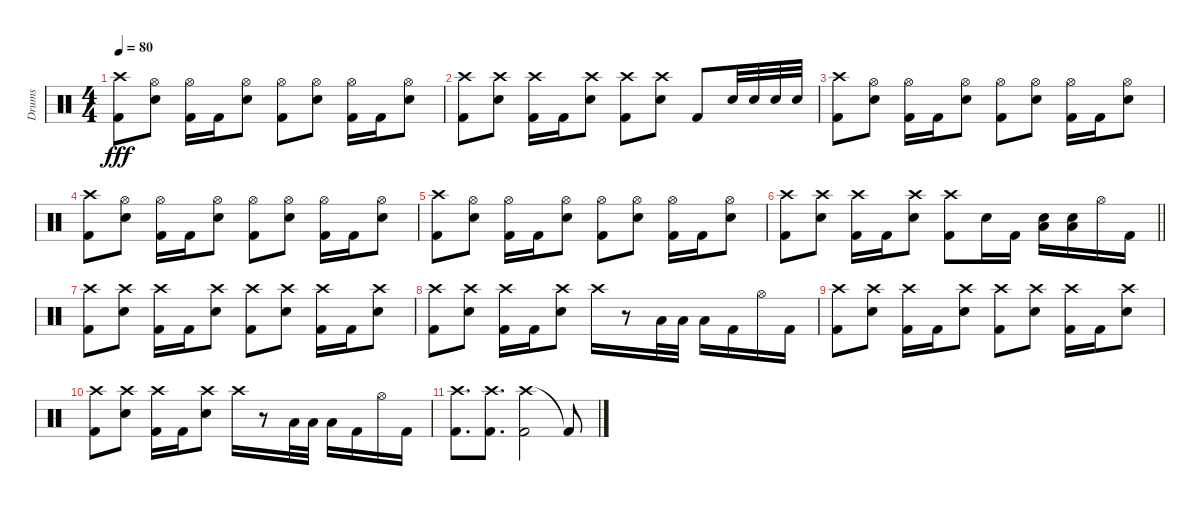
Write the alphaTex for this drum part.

\track ("Drums" "Drums") {instrument percussion}
\staff {score}
\articulation defaults
\ts (4 4)
\tempo 80
\clef neutral
\ks c
("Crash high (hit)" "Kick (hit) 2").8{dy fff} ("Hi-Hat (open)" "Snare (hit) 2").8 ("Hi-Hat (open)" "Kick (hit) 2").16 "Kick (hit) 2".16 ("Hi-Hat (open)" "Snare (hit) 2").8 ("Hi-Hat (open)" "Kick (hit) 2").8 ("Hi-Hat (open)" "Snare (hit) 2").8 ("Hi-Hat (open)" "Kick (hit) 2").16 "Kick (hit) 2".16 ("Hi-Hat (open)" "Snare (hit) 2").8 |
("Crash high (hit)" "Kick (hit) 2").8 ("Crash high (hit)" "Snare (hit) 2").8 ("Crash high (hit)" "Kick (hit) 2").16 "Kick (hit) 2".16 ("Crash high (hit)" "Snare (hit) 2").8 ("Crash high (hit)" "Kick (hit) 2").8 ("Crash high (hit)" "Snare (hit) 2").8 "Kick (hit) 2".8 "Snare (hit) 2".32 "Snare (hit) 2".32 "Snare (hit) 2".32 "Snare (hit) 2".32 |
("Crash high (hit)" "Kick (hit) 2").8 ("Hi-Hat (open)" "Snare (hit) 2").8 ("Hi-Hat (open)" "Kick (hit) 2").16 "Kick (hit) 2".16 ("Hi-Hat (open)" "Snare (hit) 2").8 ("Hi-Hat (open)" "Kick (hit) 2").8 ("Hi-Hat (open)" "Snare (hit) 2").8 ("Hi-Hat (open)" "Kick (hit) 2").16 "Kick (hit) 2".16 ("Hi-Hat (open)" "Snare (hit) 2").8 |
("Crash high (hit)" "Kick (hit) 2").8 ("Hi-Hat (open)" "Snare (hit) 2").8 ("Hi-Hat (open)" "Kick (hit) 2").16 "Kick (hit) 2".16 ("Hi-Hat (open)" "Snare (hit) 2").8 ("Hi-Hat (open)" "Kick (hit) 2").8 ("Hi-Hat (open)" "Snare (hit) 2").8 ("Hi-Hat (open)" "Kick (hit) 2").16 "Kick (hit) 2".16 ("Hi-Hat (open)" "Snare (hit) 2").8 |
("Crash high (hit)" "Kick (hit) 2").8 ("Hi-Hat (open)" "Snare (hit) 2").8 ("Hi-Hat (open)" "Kick (hit) 2").16 "Kick (hit) 2".16 ("Hi-Hat (open)" "Snare (hit) 2").8 ("Hi-Hat (open)" "Kick (hit) 2").8 ("Hi-Hat (open)" "Snare (hit) 2").8 ("Hi-Hat (open)" "Kick (hit) 2").16 "Kick (hit) 2".16 ("Hi-Hat (open)" "Snare (hit) 2").8 |
\barLineRight lightlight
("Crash high (hit)" "Kick (hit) 2").8 ("Crash high (hit)" "Snare (hit) 2").8 ("Crash high (hit)" "Kick (hit) 2").16 "Kick (hit) 2".16 ("Crash high (hit)" "Snare (hit) 2").8 ("Crash high (hit)" "Kick (hit) 2").8 "Snare (hit) 2".16 "Kick (hit) 2".16 ("Snare (hit) 2" "Low Floor Tom (hit)").16 ("Snare (hit) 2" "Low Floor Tom (hit)").16 "Hi-Hat (open)".16 "Kick (hit) 2".16 |
("Crash high (hit)" "Kick (hit) 2").8 ("Crash high (hit)" "Snare (hit) 2").8 ("Crash high (hit)" "Kick (hit) 2").16 "Kick (hit) 2".16 ("Crash high (hit)" "Snare (hit) 2").8 ("Crash high (hit)" "Kick (hit) 2").8 ("Crash high (hit)" "Snare (hit) 2").8 ("Crash high (hit)" "Kick (hit) 2").16 "Kick (hit) 2".16 ("Crash high (hit)" "Snare (hit) 2").8 |
("Crash high (hit)" "Kick (hit) 2").8 ("Crash high (hit)" "Snare (hit) 2").8 ("Crash high (hit)" "Kick (hit) 2").16 "Kick (hit) 2".16 ("Crash high (hit)" "Snare (hit) 2").8 "Crash high (hit)".16 r.8 "Low Floor Tom (hit)".32 "Low Floor Tom (hit)".32 "Low Floor Tom (hit)".16 "Kick (hit) 2".16 "Hi-Hat (open)".16 "Kick (hit) 2".16 |
("Crash high (hit)" "Kick (hit) 2").8 ("Crash high (hit)" "Snare (hit) 2").8 ("Crash high (hit)" "Kick (hit) 2").16 "Kick (hit) 2".16 ("Crash high (hit)" "Snare (hit) 2").8 ("Crash high (hit)" "Kick (hit) 2").8 ("Crash high (hit)" "Snare (hit) 2").8 ("Crash high (hit)" "Kick (hit) 2").16 "Kick (hit) 2".16 ("Crash high (hit)" "Snare (hit) 2").8 |
("Crash high (hit)" "Kick (hit) 2").8 ("Crash high (hit)" "Snare (hit) 2").8 ("Crash high (hit)" "Kick (hit) 2").16 "Kick (hit) 2".16 ("Crash high (hit)" "Snare (hit) 2").8 "Crash high (hit)".16 r.8 "Low Floor Tom (hit)".32 "Low Floor Tom (hit)".32 "Low Floor Tom (hit)".16 "Kick (hit) 2".16 "Hi-Hat (open)".16 "Kick (hit) 2".16 |
("Crash high (hit)" "Kick (hit) 2").8{d} ("Crash high (hit)" "Kick (hit) 2").8{d} ("Crash high (hit)" "Kick (hit) 2").2 "Kick (hit) 2"{t}.8
